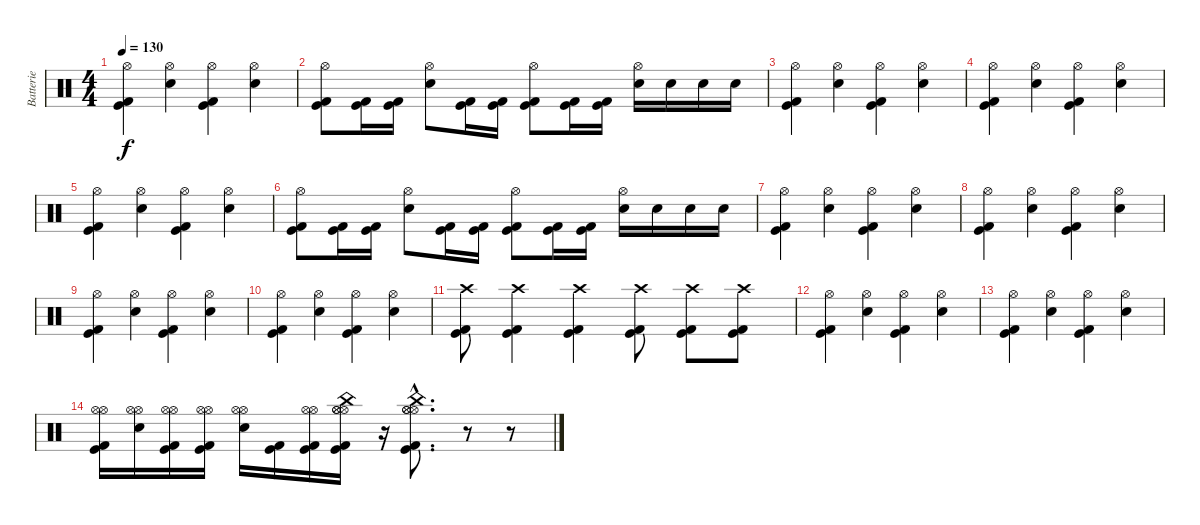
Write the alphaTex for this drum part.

\track ("Batterie" "Batterie") {instrument percussion}
\staff {score}
\articulation defaults
\ts (4 4)
\tempo 130
\clef neutral
\ks c
("Hi-Hat (open)" "Kick (hit) 2" "Kick (hit)").4{dy f} ("Hi-Hat (open)" "Electric Snare (hit)").4 ("Hi-Hat (open)" "Kick (hit)" "Kick (hit) 2").4 ("Hi-Hat (open)" "Electric Snare (hit)").4 |
("Hi-Hat (open)" "Kick (hit) 2" "Kick (hit)").8 ("Kick (hit)" "Kick (hit) 2").16 ("Kick (hit)" "Kick (hit) 2").16 ("Hi-Hat (open)" "Electric Snare (hit)").8 ("Kick (hit)" "Kick (hit) 2").16 ("Kick (hit) 2" "Kick (hit)").16 ("Hi-Hat (open)" "Kick (hit)" "Kick (hit) 2").8 ("Kick (hit)" "Kick (hit) 2").16 ("Kick (hit) 2" "Kick (hit)").16 ("Hi-Hat (open)" "Electric Snare (hit)").16 "Electric Snare (hit)".16 "Electric Snare (hit)".16 "Electric Snare (hit)".16 |
("Hi-Hat (open)" "Kick (hit) 2" "Kick (hit)").4 ("Hi-Hat (open)" "Electric Snare (hit)").4 ("Hi-Hat (open)" "Kick (hit)" "Kick (hit) 2").4 ("Hi-Hat (open)" "Electric Snare (hit)").4 |
("Hi-Hat (open)" "Kick (hit) 2" "Kick (hit)").4 ("Hi-Hat (open)" "Electric Snare (hit)").4 ("Hi-Hat (open)" "Kick (hit)" "Kick (hit) 2").4 ("Hi-Hat (open)" "Electric Snare (hit)").4 |
("Hi-Hat (open)" "Kick (hit) 2" "Kick (hit)").4 ("Hi-Hat (open)" "Electric Snare (hit)").4 ("Hi-Hat (open)" "Kick (hit)" "Kick (hit) 2").4 ("Hi-Hat (open)" "Electric Snare (hit)").4 |
("Hi-Hat (open)" "Kick (hit) 2" "Kick (hit)").8 ("Kick (hit)" "Kick (hit) 2").16 ("Kick (hit)" "Kick (hit) 2").16 ("Hi-Hat (open)" "Electric Snare (hit)").8 ("Kick (hit)" "Kick (hit) 2").16 ("Kick (hit) 2" "Kick (hit)").16 ("Hi-Hat (open)" "Kick (hit)" "Kick (hit) 2").8 ("Kick (hit)" "Kick (hit) 2").16 ("Kick (hit) 2" "Kick (hit)").16 ("Hi-Hat (open)" "Electric Snare (hit)").16 "Electric Snare (hit)".16 "Electric Snare (hit)".16 "Electric Snare (hit)".16 |
("Hi-Hat (open)" "Kick (hit) 2" "Kick (hit)").4 ("Hi-Hat (open)" "Electric Snare (hit)").4 ("Hi-Hat (open)" "Kick (hit)" "Kick (hit) 2").4 ("Hi-Hat (open)" "Electric Snare (hit)").4 |
("Hi-Hat (open)" "Kick (hit) 2" "Kick (hit)").4 ("Hi-Hat (open)" "Electric Snare (hit)").4 ("Hi-Hat (open)" "Kick (hit)" "Kick (hit) 2").4 ("Hi-Hat (open)" "Electric Snare (hit)").4 |
("Hi-Hat (open)" "Kick (hit) 2" "Kick (hit)").4 ("Hi-Hat (open)" "Electric Snare (hit)").4 ("Hi-Hat (open)" "Kick (hit)" "Kick (hit) 2").4 ("Hi-Hat (open)" "Electric Snare (hit)").4 |
("Hi-Hat (open)" "Kick (hit) 2" "Kick (hit)").4 ("Hi-Hat (open)" "Electric Snare (hit)").4 ("Hi-Hat (open)" "Kick (hit)" "Kick (hit) 2").4 ("Hi-Hat (open)" "Electric Snare (hit)").4 |
("Crash high (hit)" "Kick (hit) 2" "Kick (hit)").8 ("Crash high (hit)" "Kick (hit)" "Kick (hit) 2").4 ("Crash high (hit)" "Kick (hit) 2" "Kick (hit)").4 ("Crash high (hit)" "Kick (hit)" "Kick (hit) 2").8 ("Crash high (hit)" "Kick (hit) 2" "Kick (hit)").8 ("Crash high (hit)" "Kick (hit)" "Kick (hit) 2").8 |
("Hi-Hat (open)" "Kick (hit) 2" "Kick (hit)").4 ("Hi-Hat (open)" "Electric Snare (hit)").4 ("Hi-Hat (open)" "Kick (hit)" "Kick (hit) 2").4 ("Hi-Hat (open)" "Electric Snare (hit)").4 |
("Hi-Hat (open)" "Kick (hit) 2" "Kick (hit)").4 ("Hi-Hat (open)" "Electric Snare (hit)").4 ("Hi-Hat (open)" "Kick (hit)" "Kick (hit) 2").4 ("Hi-Hat (open)" "Electric Snare (hit)").4 |
("Hi-Hat (open)" "Hi-Hat (open)" "Kick (hit)" "Kick (hit) 2").16 ("Hi-Hat (open)" "Hi-Hat (open)" "Electric Snare (hit)").16 ("Hi-Hat (open)" "Hi-Hat (open)" "Kick (hit)" "Kick (hit) 2").16 ("Hi-Hat (open)" "Hi-Hat (open)" "Kick (hit) 2" "Kick (hit)").16 ("Hi-Hat (open)" "Hi-Hat (open)" "Electric Snare (hit)").16 ("Kick (hit) 2" "Kick (hit)").16 ("Hi-Hat (open)" "Hi-Hat (open)" "Kick (hit)" "Kick (hit) 2").16 ("China (hit)" "Hi-Hat (open)" "Hi-Hat (open)" "Hi-Hat (open)" "Kick (hit)" "Kick (hit) 2").16 r.16 ("China (hit)"{hac} "Hi-Hat (open)"{hac} "Hi-Hat (open)"{hac} "Hi-Hat (open)"{hac} "Kick (hit) 2"{hac} "Kick (hit)"{hac}).8{d} r.8 r.8
